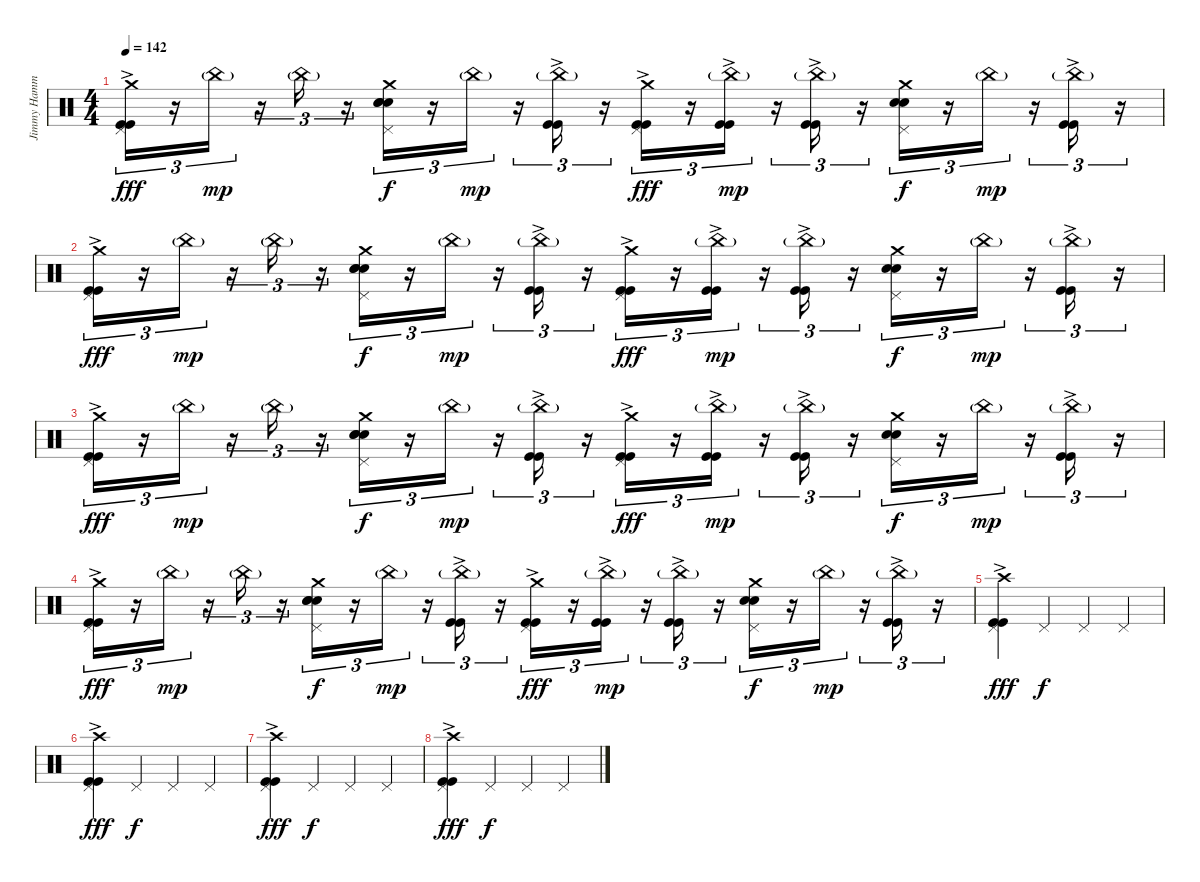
\track ("Jimmy Hammer" "Jimmy Hamm") {instrument percussion}
\staff {score}
\articulation defaults
\ts (4 4)
\tempo 142
\clef neutral
\ks c
("Kick (hit)"{ac} "Crash medium (hit)" "Pedal Hi-Hat (hit)" "Kick (hit)"{ac}).16{tu (3 2) dy fff} r.16{tu (3 2)} "China (hit)"{g}.16{tu (3 2) dy mp} r.16{tu (3 2)} "China (hit)"{g}.16{tu (3 2)} r.16{tu (3 2)} ("Crash medium (hit)" "Electric Snare (hit)" "Electric Snare (hit)" "Electric Snare (hit)" "Pedal Hi-Hat (hit)").16{tu (3 2) dy f} r.16{tu (3 2)} "China (hit)"{g}.16{tu (3 2) dy mp} r.16{tu (3 2)} ("Kick (hit)"{ac} "Kick (hit)"{ac} "China (hit)"{g}).16{tu (3 2)} r.16{tu (3 2)} ("Crash medium (hit)" "Kick (hit)"{ac} "Kick (hit)"{ac} "Pedal Hi-Hat (hit)").16{tu (3 2) dy fff} r.16{tu (3 2)} ("Kick (hit)"{ac} "Kick (hit)"{ac} "China (hit)"{g}).16{tu (3 2) dy mp} r.16{tu (3 2)} ("Kick (hit)"{ac} "Kick (hit)"{ac} "China (hit)"{g}).16{tu (3 2)} r.16{tu (3 2)} ("Electric Snare (hit)" "Electric Snare (hit)" "Crash medium (hit)" "Pedal Hi-Hat (hit)").16{tu (3 2) dy f} r.16{tu (3 2)} "China (hit)"{g}.16{tu (3 2) dy mp} r.16{tu (3 2)} ("Kick (hit)"{ac} "Kick (hit)"{ac} "China (hit)"{g}).16{tu (3 2)} r.16{tu (3 2)} |
("Kick (hit)"{ac} "Crash medium (hit)" "Pedal Hi-Hat (hit)" "Kick (hit)"{ac}).16{tu (3 2) dy fff} r.16{tu (3 2)} "China (hit)"{g}.16{tu (3 2) dy mp} r.16{tu (3 2)} "China (hit)"{g}.16{tu (3 2)} r.16{tu (3 2)} ("Crash medium (hit)" "Electric Snare (hit)" "Electric Snare (hit)" "Electric Snare (hit)" "Pedal Hi-Hat (hit)").16{tu (3 2) dy f} r.16{tu (3 2)} "China (hit)"{g}.16{tu (3 2) dy mp} r.16{tu (3 2)} ("Kick (hit)"{ac} "Kick (hit)"{ac} "China (hit)"{g}).16{tu (3 2)} r.16{tu (3 2)} ("Crash medium (hit)" "Kick (hit)"{ac} "Kick (hit)"{ac} "Pedal Hi-Hat (hit)").16{tu (3 2) dy fff} r.16{tu (3 2)} ("Kick (hit)"{ac} "Kick (hit)"{ac} "China (hit)"{g}).16{tu (3 2) dy mp} r.16{tu (3 2)} ("Kick (hit)"{ac} "Kick (hit)"{ac} "China (hit)"{g}).16{tu (3 2)} r.16{tu (3 2)} ("Electric Snare (hit)" "Electric Snare (hit)" "Crash medium (hit)" "Pedal Hi-Hat (hit)").16{tu (3 2) dy f} r.16{tu (3 2)} "China (hit)"{g}.16{tu (3 2) dy mp} r.16{tu (3 2)} ("Kick (hit)"{ac} "Kick (hit)"{ac} "China (hit)"{g}).16{tu (3 2)} r.16{tu (3 2)} |
("Kick (hit)"{ac} "Crash medium (hit)" "Pedal Hi-Hat (hit)" "Kick (hit)"{ac}).16{tu (3 2) dy fff} r.16{tu (3 2)} "China (hit)"{g}.16{tu (3 2) dy mp} r.16{tu (3 2)} "China (hit)"{g}.16{tu (3 2)} r.16{tu (3 2)} ("Crash medium (hit)" "Electric Snare (hit)" "Electric Snare (hit)" "Electric Snare (hit)" "Pedal Hi-Hat (hit)").16{tu (3 2) dy f} r.16{tu (3 2)} "China (hit)"{g}.16{tu (3 2) dy mp} r.16{tu (3 2)} ("Kick (hit)"{ac} "Kick (hit)"{ac} "China (hit)"{g}).16{tu (3 2)} r.16{tu (3 2)} ("Crash medium (hit)" "Kick (hit)"{ac} "Kick (hit)"{ac} "Pedal Hi-Hat (hit)").16{tu (3 2) dy fff} r.16{tu (3 2)} ("Kick (hit)"{ac} "Kick (hit)"{ac} "China (hit)"{g}).16{tu (3 2) dy mp} r.16{tu (3 2)} ("Kick (hit)"{ac} "Kick (hit)"{ac} "China (hit)"{g}).16{tu (3 2)} r.16{tu (3 2)} ("Electric Snare (hit)" "Electric Snare (hit)" "Crash medium (hit)" "Pedal Hi-Hat (hit)").16{tu (3 2) dy f} r.16{tu (3 2)} "China (hit)"{g}.16{tu (3 2) dy mp} r.16{tu (3 2)} ("Kick (hit)"{ac} "Kick (hit)"{ac} "China (hit)"{g}).16{tu (3 2)} r.16{tu (3 2)} |
("Kick (hit)"{ac} "Crash medium (hit)" "Pedal Hi-Hat (hit)" "Kick (hit)"{ac}).16{tu (3 2) dy fff} r.16{tu (3 2)} "China (hit)"{g}.16{tu (3 2) dy mp} r.16{tu (3 2)} "China (hit)"{g}.16{tu (3 2)} r.16{tu (3 2)} ("Crash medium (hit)" "Electric Snare (hit)" "Electric Snare (hit)" "Electric Snare (hit)" "Pedal Hi-Hat (hit)").16{tu (3 2) dy f} r.16{tu (3 2)} "China (hit)"{g}.16{tu (3 2) dy mp} r.16{tu (3 2)} ("Kick (hit)"{ac} "Kick (hit)"{ac} "China (hit)"{g}).16{tu (3 2)} r.16{tu (3 2)} ("Crash medium (hit)" "Kick (hit)"{ac} "Kick (hit)"{ac} "Pedal Hi-Hat (hit)").16{tu (3 2) dy fff} r.16{tu (3 2)} ("Kick (hit)"{ac} "Kick (hit)"{ac} "China (hit)"{g}).16{tu (3 2) dy mp} r.16{tu (3 2)} ("Kick (hit)"{ac} "Kick (hit)"{ac} "China (hit)"{g}).16{tu (3 2)} r.16{tu (3 2)} ("Electric Snare (hit)" "Electric Snare (hit)" "Crash medium (hit)" "Pedal Hi-Hat (hit)").16{tu (3 2) dy f} r.16{tu (3 2)} "China (hit)"{g}.16{tu (3 2) dy mp} r.16{tu (3 2)} ("Kick (hit)"{ac} "Kick (hit)"{ac} "China (hit)"{g}).16{tu (3 2)} r.16{tu (3 2)} |
("Kick (hit)"{ac} "Crash high (hit)" "Pedal Hi-Hat (hit)" "Kick (hit)"{ac}).4{dy fff} "Pedal Hi-Hat (hit)".4{dy f} "Pedal Hi-Hat (hit)".4 "Pedal Hi-Hat (hit)".4 |
("Kick (hit)"{ac} "Crash high (hit)" "Pedal Hi-Hat (hit)" "Kick (hit)"{ac}).4{dy fff} "Pedal Hi-Hat (hit)".4{dy f} "Pedal Hi-Hat (hit)".4 "Pedal Hi-Hat (hit)".4 |
("Kick (hit)"{ac} "Crash high (hit)" "Pedal Hi-Hat (hit)" "Kick (hit)"{ac}).4{dy fff} "Pedal Hi-Hat (hit)".4{dy f} "Pedal Hi-Hat (hit)".4 "Pedal Hi-Hat (hit)".4 |
("Kick (hit)"{ac} "Crash high (hit)" "Pedal Hi-Hat (hit)" "Kick (hit)"{ac}).4{dy fff} "Pedal Hi-Hat (hit)".4{dy f} "Pedal Hi-Hat (hit)".4 "Pedal Hi-Hat (hit)".4
